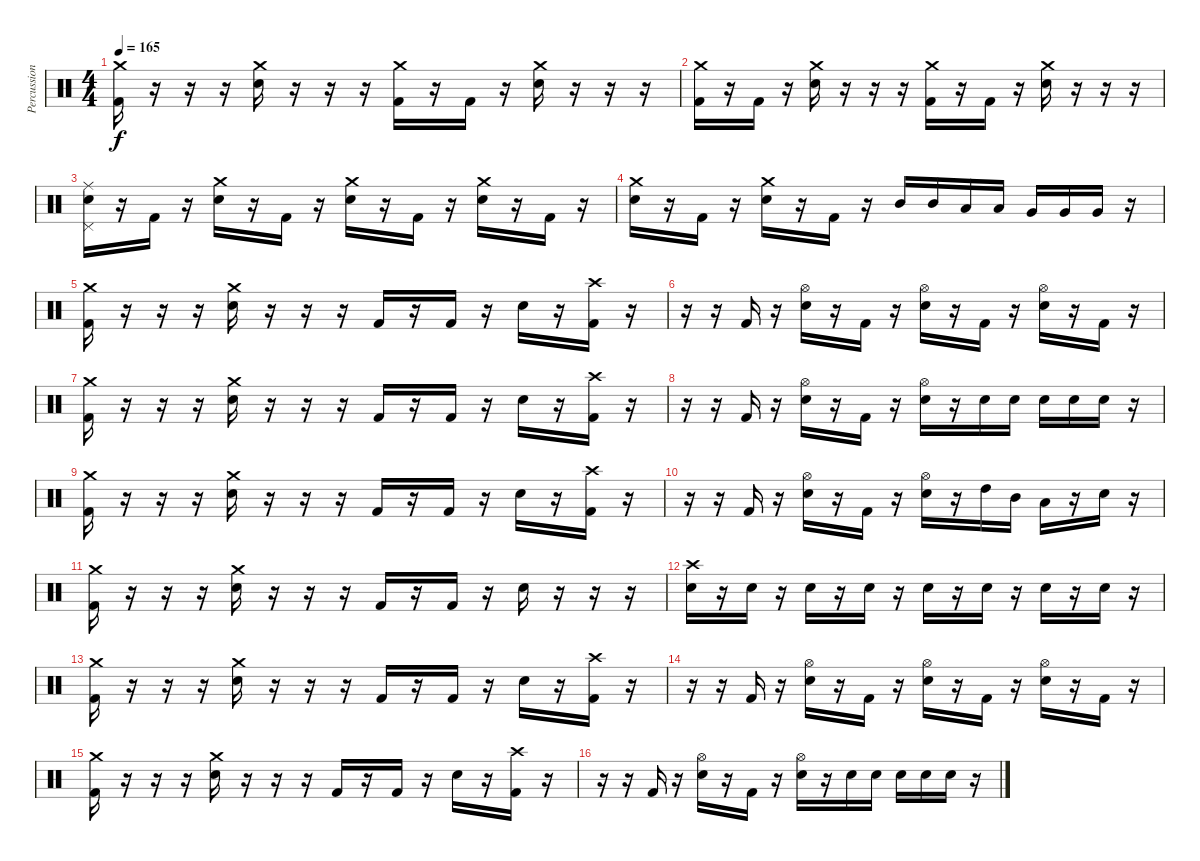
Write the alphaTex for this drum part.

\track ("Percussion" "Percussion") {instrument percussion}
\staff {score}
\articulation defaults
\ts (4 4)
\tempo 165
\clef neutral
\ks c
("Crash medium (hit)" "Kick (hit) 2").16{dy f} r.16 r.16 r.16 ("Crash medium (hit)" "Electric Snare (hit)").16 r.16 r.16 r.16 ("Crash medium (hit)" "Kick (hit) 2").16 r.16 "Kick (hit) 2".16 r.16 ("Crash medium (hit)" "Electric Snare (hit)").16 r.16 r.16 r.16 |
("Crash medium (hit)" "Kick (hit) 2").16 r.16 "Kick (hit) 2".16 r.16 ("Crash medium (hit)" "Electric Snare (hit)").16 r.16 r.16 r.16 ("Crash medium (hit)" "Kick (hit) 2").16 r.16 "Kick (hit) 2".16 r.16 ("Crash medium (hit)" "Electric Snare (hit)").16 r.16 r.16 r.16 |
("Pedal Hi-Hat (hit)" "Ride (middle)" "Electric Snare (hit)").16 r.16 "Kick (hit) 2".16 r.16 ("Crash medium (hit)" "Electric Snare (hit)").16 r.16 "Kick (hit) 2".16 r.16 ("Crash medium (hit)" "Electric Snare (hit)").16 r.16 "Kick (hit) 2".16 r.16 ("Crash medium (hit)" "Electric Snare (hit)").16 r.16 "Kick (hit) 2".16 r.16 |
("Crash medium (hit)" "Electric Snare (hit)").16 r.16 "Kick (hit) 2".16 r.16 ("Crash medium (hit)" "Electric Snare (hit)").16 r.16 "Kick (hit) 2".16 r.16 "Mid Tom (hit)".16 "Mid Tom (hit)".16 "Low Tom (hit)".16 "Low Tom (hit)".16 "Very Low Tom (hit)".16 "Very Low Tom (hit)".16 "Very Low Tom (hit)".16 r.16 |
("Crash medium (hit)" "Kick (hit) 2").16 r.16 r.16 r.16 ("Crash medium (hit)" "Electric Snare (hit)").16 r.16 r.16 r.16 "Kick (hit) 2".16 r.16 "Kick (hit) 2".16 r.16 "Electric Snare (hit)".16 r.16 ("Crash high (hit)" "Kick (hit) 2").16 r.16 |
r.16 r.16 "Kick (hit) 2".16 r.16 ("Hi-Hat (open)" "Electric Snare (hit)").16 r.16 "Kick (hit) 2".16 r.16 ("Hi-Hat (open)" "Electric Snare (hit)").16 r.16 "Kick (hit) 2".16 r.16 ("Hi-Hat (open)" "Electric Snare (hit)").16 r.16 "Kick (hit) 2".16 r.16 |
("Crash medium (hit)" "Kick (hit) 2").16 r.16 r.16 r.16 ("Crash medium (hit)" "Electric Snare (hit)").16 r.16 r.16 r.16 "Kick (hit) 2".16 r.16 "Kick (hit) 2".16 r.16 "Electric Snare (hit)".16 r.16 ("Crash high (hit)" "Kick (hit) 2").16 r.16 |
r.16 r.16 "Kick (hit) 2".16 r.16 ("Hi-Hat (open)" "Electric Snare (hit)").16 r.16 "Kick (hit) 2".16 r.16 ("Hi-Hat (open)" "Electric Snare (hit)").16 r.16 "Electric Snare (hit)".16 "Electric Snare (hit)".16 "Electric Snare (hit)".16 "Electric Snare (hit)".16 "Electric Snare (hit)".16 r.16 |
("Crash medium (hit)" "Kick (hit) 2").16 r.16 r.16 r.16 ("Crash medium (hit)" "Electric Snare (hit)").16 r.16 r.16 r.16 "Kick (hit) 2".16 r.16 "Kick (hit) 2".16 r.16 "Electric Snare (hit)".16 r.16 ("Crash high (hit)" "Kick (hit) 2").16 r.16 |
r.16 r.16 "Kick (hit) 2".16 r.16 ("Hi-Hat (open)" "Electric Snare (hit)").16 r.16 "Kick (hit) 2".16 r.16 ("Hi-Hat (open)" "Electric Snare (hit)").16 r.16 "High Tom (hit)".16 "Mid Tom (hit)".16 "Low Tom (hit)".16 r.16 "Electric Snare (hit)".16 r.16 |
("Crash medium (hit)" "Kick (hit) 2").16 r.16 r.16 r.16 ("Crash medium (hit)" "Electric Snare (hit)").16 r.16 r.16 r.16 "Kick (hit) 2".16 r.16 "Kick (hit) 2".16 r.16 "Electric Snare (hit)".16 r.16 r.16 r.16 |
("Crash high (hit)" "Electric Snare (hit)").16 r.16 "Electric Snare (hit)".16 r.16 "Electric Snare (hit)".16 r.16 "Electric Snare (hit)".16 r.16 "Electric Snare (hit)".16 r.16 "Electric Snare (hit)".16 r.16 "Electric Snare (hit)".16 r.16 "Electric Snare (hit)".16 r.16 |
("Crash medium (hit)" "Kick (hit) 2").16 r.16 r.16 r.16 ("Crash medium (hit)" "Electric Snare (hit)").16 r.16 r.16 r.16 "Kick (hit) 2".16 r.16 "Kick (hit) 2".16 r.16 "Electric Snare (hit)".16 r.16 ("Crash high (hit)" "Kick (hit) 2").16 r.16 |
r.16 r.16 "Kick (hit) 2".16 r.16 ("Hi-Hat (open)" "Electric Snare (hit)").16 r.16 "Kick (hit) 2".16 r.16 ("Hi-Hat (open)" "Electric Snare (hit)").16 r.16 "Kick (hit) 2".16 r.16 ("Hi-Hat (open)" "Electric Snare (hit)").16 r.16 "Kick (hit) 2".16 r.16 |
("Crash medium (hit)" "Kick (hit) 2").16 r.16 r.16 r.16 ("Crash medium (hit)" "Electric Snare (hit)").16 r.16 r.16 r.16 "Kick (hit) 2".16 r.16 "Kick (hit) 2".16 r.16 "Electric Snare (hit)".16 r.16 ("Crash high (hit)" "Kick (hit) 2").16 r.16 |
r.16 r.16 "Kick (hit) 2".16 r.16 ("Hi-Hat (open)" "Electric Snare (hit)").16 r.16 "Kick (hit) 2".16 r.16 ("Hi-Hat (open)" "Electric Snare (hit)").16 r.16 "Electric Snare (hit)".16 "Electric Snare (hit)".16 "Electric Snare (hit)".16 "Electric Snare (hit)".16 "Electric Snare (hit)".16 r.16
